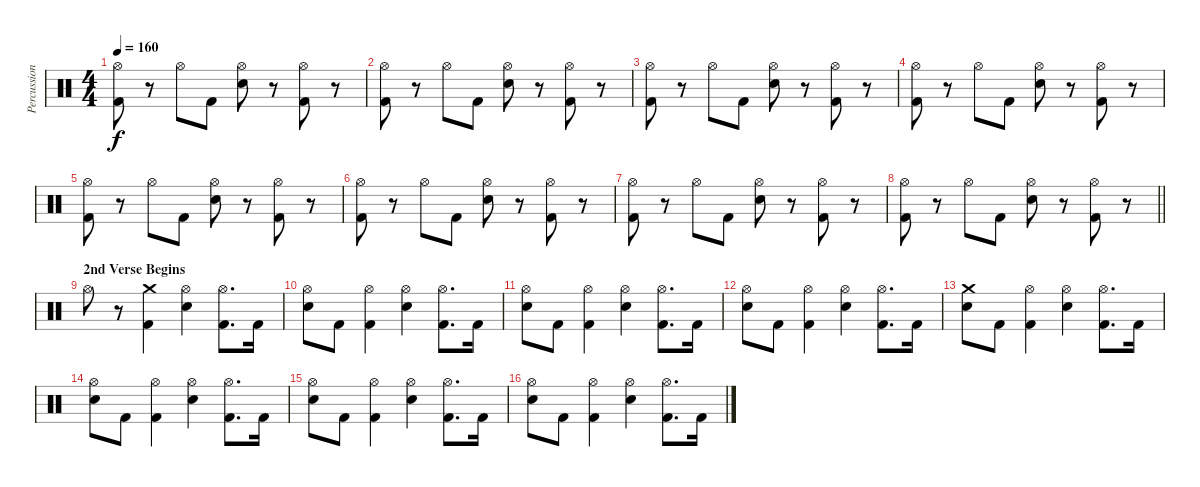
\track ("Percussion" "Percussion") {instrument percussion}
\staff {score}
\articulation defaults
\ts (4 4)
\tempo 160
\clef neutral
\ks c
("Kick (hit) 2" "Hi-Hat (open)").8{dy f} r.8 "Hi-Hat (open)".8 "Kick (hit) 2".8 ("Electric Snare (hit)" "Hi-Hat (open)").8 r.8 ("Kick (hit) 2" "Hi-Hat (open)").8 r.8 |
("Kick (hit) 2" "Hi-Hat (open)").8 r.8 "Hi-Hat (open)".8 "Kick (hit) 2".8 ("Electric Snare (hit)" "Hi-Hat (open)").8 r.8 ("Kick (hit) 2" "Hi-Hat (open)").8 r.8 |
("Kick (hit) 2" "Hi-Hat (open)").8 r.8 "Hi-Hat (open)".8 "Kick (hit) 2".8 ("Electric Snare (hit)" "Hi-Hat (open)").8 r.8 ("Kick (hit) 2" "Hi-Hat (open)").8 r.8 |
("Kick (hit) 2" "Hi-Hat (open)").8 r.8 "Hi-Hat (open)".8 "Kick (hit) 2".8 ("Electric Snare (hit)" "Hi-Hat (open)").8 r.8 ("Kick (hit) 2" "Hi-Hat (open)").8 r.8 |
("Kick (hit) 2" "Hi-Hat (open)").8 r.8 "Hi-Hat (open)".8 "Kick (hit) 2".8 ("Electric Snare (hit)" "Hi-Hat (open)").8 r.8 ("Kick (hit) 2" "Hi-Hat (open)").8 r.8 |
("Kick (hit) 2" "Hi-Hat (open)").8 r.8 "Hi-Hat (open)".8 "Kick (hit) 2".8 ("Electric Snare (hit)" "Hi-Hat (open)").8 r.8 ("Kick (hit) 2" "Hi-Hat (open)").8 r.8 |
("Kick (hit) 2" "Hi-Hat (open)").8 r.8 "Hi-Hat (open)".8 "Kick (hit) 2".8 ("Electric Snare (hit)" "Hi-Hat (open)").8 r.8 ("Kick (hit) 2" "Hi-Hat (open)").8 r.8 |
\barLineRight lightlight
("Kick (hit) 2" "Hi-Hat (open)").8 r.8 "Hi-Hat (open)".8 "Kick (hit) 2".8 ("Electric Snare (hit)" "Hi-Hat (open)").8 r.8 ("Kick (hit) 2" "Hi-Hat (open)").8 r.8 |
\section ("" "2nd Verse Begins")
"Hi-Hat (open)".8 r.8 ("Kick (hit) 2" "Crash medium (hit)").4 ("Electric Snare (hit)" "Hi-Hat (open)").4 ("Kick (hit) 2" "Hi-Hat (open)").8{d} "Kick (hit) 2".16 |
("Electric Snare (hit)" "Hi-Hat (open)").8 "Kick (hit) 2".8 ("Kick (hit) 2" "Hi-Hat (open)").4 ("Electric Snare (hit)" "Hi-Hat (open)").4 ("Kick (hit) 2" "Hi-Hat (open)").8{d} "Kick (hit) 2".16 |
("Electric Snare (hit)" "Hi-Hat (open)").8 "Kick (hit) 2".8 ("Kick (hit) 2" "Hi-Hat (open)").4 ("Electric Snare (hit)" "Hi-Hat (open)").4 ("Kick (hit) 2" "Hi-Hat (open)").8{d} "Kick (hit) 2".16 |
("Electric Snare (hit)" "Hi-Hat (open)").8 "Kick (hit) 2".8 ("Kick (hit) 2" "Hi-Hat (open)").4 ("Electric Snare (hit)" "Hi-Hat (open)").4 ("Kick (hit) 2" "Hi-Hat (open)").8{d} "Kick (hit) 2".16 |
("Electric Snare (hit)" "Crash medium (hit)").8 "Kick (hit) 2".8 ("Kick (hit) 2" "Hi-Hat (open)").4 ("Electric Snare (hit)" "Hi-Hat (open)").4 ("Kick (hit) 2" "Hi-Hat (open)").8{d} "Kick (hit) 2".16 |
("Electric Snare (hit)" "Hi-Hat (open)").8 "Kick (hit) 2".8 ("Kick (hit) 2" "Hi-Hat (open)").4 ("Electric Snare (hit)" "Hi-Hat (open)").4 ("Kick (hit) 2" "Hi-Hat (open)").8{d} "Kick (hit) 2".16 |
("Electric Snare (hit)" "Hi-Hat (open)").8 "Kick (hit) 2".8 ("Kick (hit) 2" "Hi-Hat (open)").4 ("Electric Snare (hit)" "Hi-Hat (open)").4 ("Kick (hit) 2" "Hi-Hat (open)").8{d} "Kick (hit) 2".16 |
("Electric Snare (hit)" "Hi-Hat (open)").8 "Kick (hit) 2".8 ("Kick (hit) 2" "Hi-Hat (open)").4 ("Electric Snare (hit)" "Hi-Hat (open)").4 ("Kick (hit) 2" "Hi-Hat (open)").8{d} "Kick (hit) 2".16
